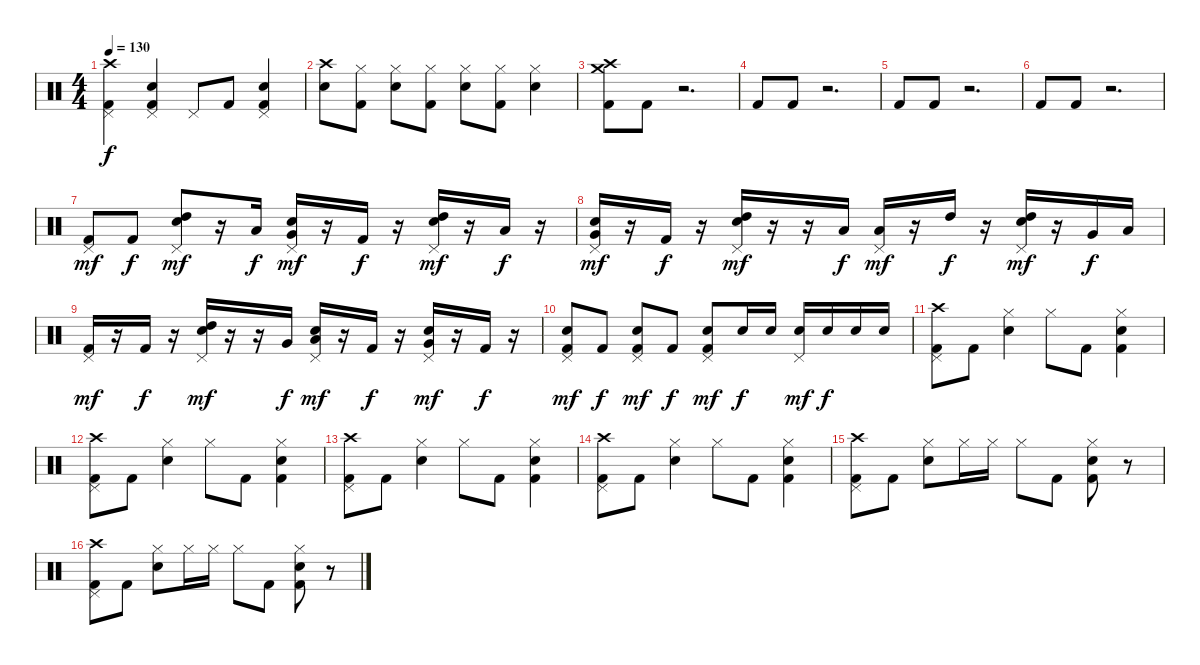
\track "" {instrument percussion}
\staff {score}
\articulation defaults
\ts (4 4)
\tempo 130
\clef neutral
\ks c
("Crash high (hit)" "Pedal Hi-Hat (hit)" "Kick (hit) 2").4{dy f} ("Pedal Hi-Hat (hit)" "Electric Snare (hit)" "Kick (hit) 2").4 "Pedal Hi-Hat (hit)".8 "Kick (hit) 2".8 ("Pedal Hi-Hat (hit)" "Kick (hit) 2" "Electric Snare (hit)").4 |
("Crash high (hit)" "Electric Snare (hit)").8 ("Hi-Hat (closed)" "Kick (hit) 2").8 ("Hi-Hat (closed)" "Electric Snare (hit)").8 ("Hi-Hat (closed)" "Kick (hit) 2").8 ("Hi-Hat (closed)" "Electric Snare (hit)").8 ("Hi-Hat (closed)" "Kick (hit) 2").8 ("Hi-Hat (closed)" "Electric Snare (hit)").4 |
("Crash medium (hit)" "Crash high (hit)" "Kick (hit) 2").8 "Kick (hit) 2".8 r.2{d} |
"Kick (hit) 2".8 "Kick (hit) 2".8 r.2{d} |
"Kick (hit) 2".8 "Kick (hit) 2".8 r.2{d} |
"Kick (hit) 2".8 "Kick (hit) 2".8 r.2{d} |
("Kick (hit) 2" "Pedal Hi-Hat (hit)").8{dy mf} "Kick (hit) 2".8{dy f} ("High Tom (hit)" "Electric Snare (hit)" "Pedal Hi-Hat (hit)").8{dy mf} r.16 "Low Tom (hit)".16{dy f} ("Electric Snare (hit)" "Very Low Tom (hit)" "Pedal Hi-Hat (hit)").16{dy mf} r.16 "Kick (hit) 2".16{dy f} r.16 ("Electric Snare (hit)" "High Tom (hit)" "Pedal Hi-Hat (hit)").16{dy mf} r.16 "Low Tom (hit)".16{dy f} r.16 |
("Electric Snare (hit)" "Very Low Tom (hit)" "Pedal Hi-Hat (hit)").16{dy mf} r.16 "Kick (hit) 2".16{dy f} r.16 ("Electric Snare (hit)" "High Tom (hit)" "Pedal Hi-Hat (hit)").16{dy mf} r.16 r.16 "Low Tom (hit)".16{dy f} ("Low Tom (hit)" "Pedal Hi-Hat (hit)").16{dy mf} r.16 "High Tom (hit)".16{dy f} r.16 ("Electric Snare (hit)" "High Tom (hit)" "Pedal Hi-Hat (hit)").16{dy mf} r.16 "Very Low Tom (hit)".16{dy f} "Low Tom (hit)".16 |
("Kick (hit) 2" "Pedal Hi-Hat (hit)").16{dy mf} r.16 "Kick (hit) 2".16{dy f} r.16 ("High Tom (hit)" "Electric Snare (hit)" "Pedal Hi-Hat (hit)").16{dy mf} r.16 r.16 "Very Low Tom (hit)".16{dy f} ("Low Tom (hit)" "Electric Snare (hit)" "Pedal Hi-Hat (hit)").16{dy mf beam merge} r.16 "Kick (hit) 2".16{dy f} r.16 ("Very Low Tom (hit)" "Electric Snare (hit)" "Pedal Hi-Hat (hit)").16{dy mf} r.16 "Kick (hit) 2".16{dy f} r.16 |
("Kick (hit) 2" "Electric Snare (hit)" "Pedal Hi-Hat (hit)").8{dy mf} "Kick (hit) 2".8{dy f} ("Kick (hit) 2" "Electric Snare (hit)" "Pedal Hi-Hat (hit)").8{dy mf} "Kick (hit) 2".8{dy f} ("Kick (hit) 2" "Electric Snare (hit)" "Pedal Hi-Hat (hit)").8{dy mf} "Electric Snare (hit)".16{dy f} "Electric Snare (hit)".16 ("Electric Snare (hit)" "Pedal Hi-Hat (hit)").16{dy mf} "Electric Snare (hit)".16{dy f} "Electric Snare (hit)".16 "Electric Snare (hit)".16 |
("Crash high (hit)" "Pedal Hi-Hat (hit)" "Kick (hit) 2").8 "Kick (hit) 2".8 ("Hi-Hat (closed)" "Electric Snare (hit)").4 "Hi-Hat (closed)".8 "Kick (hit) 2".8 ("Hi-Hat (closed)" "Kick (hit) 2" "Electric Snare (hit)").4 |
("Crash high (hit)" "Pedal Hi-Hat (hit)" "Kick (hit) 2").8 "Kick (hit) 2".8 ("Hi-Hat (closed)" "Electric Snare (hit)").4 "Hi-Hat (closed)".8 "Kick (hit) 2".8 ("Hi-Hat (closed)" "Kick (hit) 2" "Electric Snare (hit)").4 |
("Crash high (hit)" "Pedal Hi-Hat (hit)" "Kick (hit) 2").8 "Kick (hit) 2".8 ("Hi-Hat (closed)" "Electric Snare (hit)").4 "Hi-Hat (closed)".8 "Kick (hit) 2".8 ("Hi-Hat (closed)" "Kick (hit) 2" "Electric Snare (hit)").4 |
("Crash high (hit)" "Pedal Hi-Hat (hit)" "Kick (hit) 2").8 "Kick (hit) 2".8 ("Hi-Hat (closed)" "Electric Snare (hit)").4 "Hi-Hat (closed)".8 "Kick (hit) 2".8 ("Hi-Hat (closed)" "Kick (hit) 2" "Electric Snare (hit)").4 |
("Crash high (hit)" "Pedal Hi-Hat (hit)" "Kick (hit) 2").8 "Kick (hit) 2".8 ("Hi-Hat (closed)" "Electric Snare (hit)").8 "Hi-Hat (closed)".16 "Hi-Hat (closed)".16 "Hi-Hat (closed)".8 "Kick (hit) 2".8 ("Hi-Hat (closed)" "Electric Snare (hit)" "Kick (hit) 2").8 r.8 |
("Crash high (hit)" "Pedal Hi-Hat (hit)" "Kick (hit) 2").8 "Kick (hit) 2".8 ("Hi-Hat (closed)" "Electric Snare (hit)").8 "Hi-Hat (closed)".16 "Hi-Hat (closed)".16 "Hi-Hat (closed)".8 "Kick (hit) 2".8 ("Hi-Hat (closed)" "Electric Snare (hit)" "Kick (hit) 2").8 r.8
